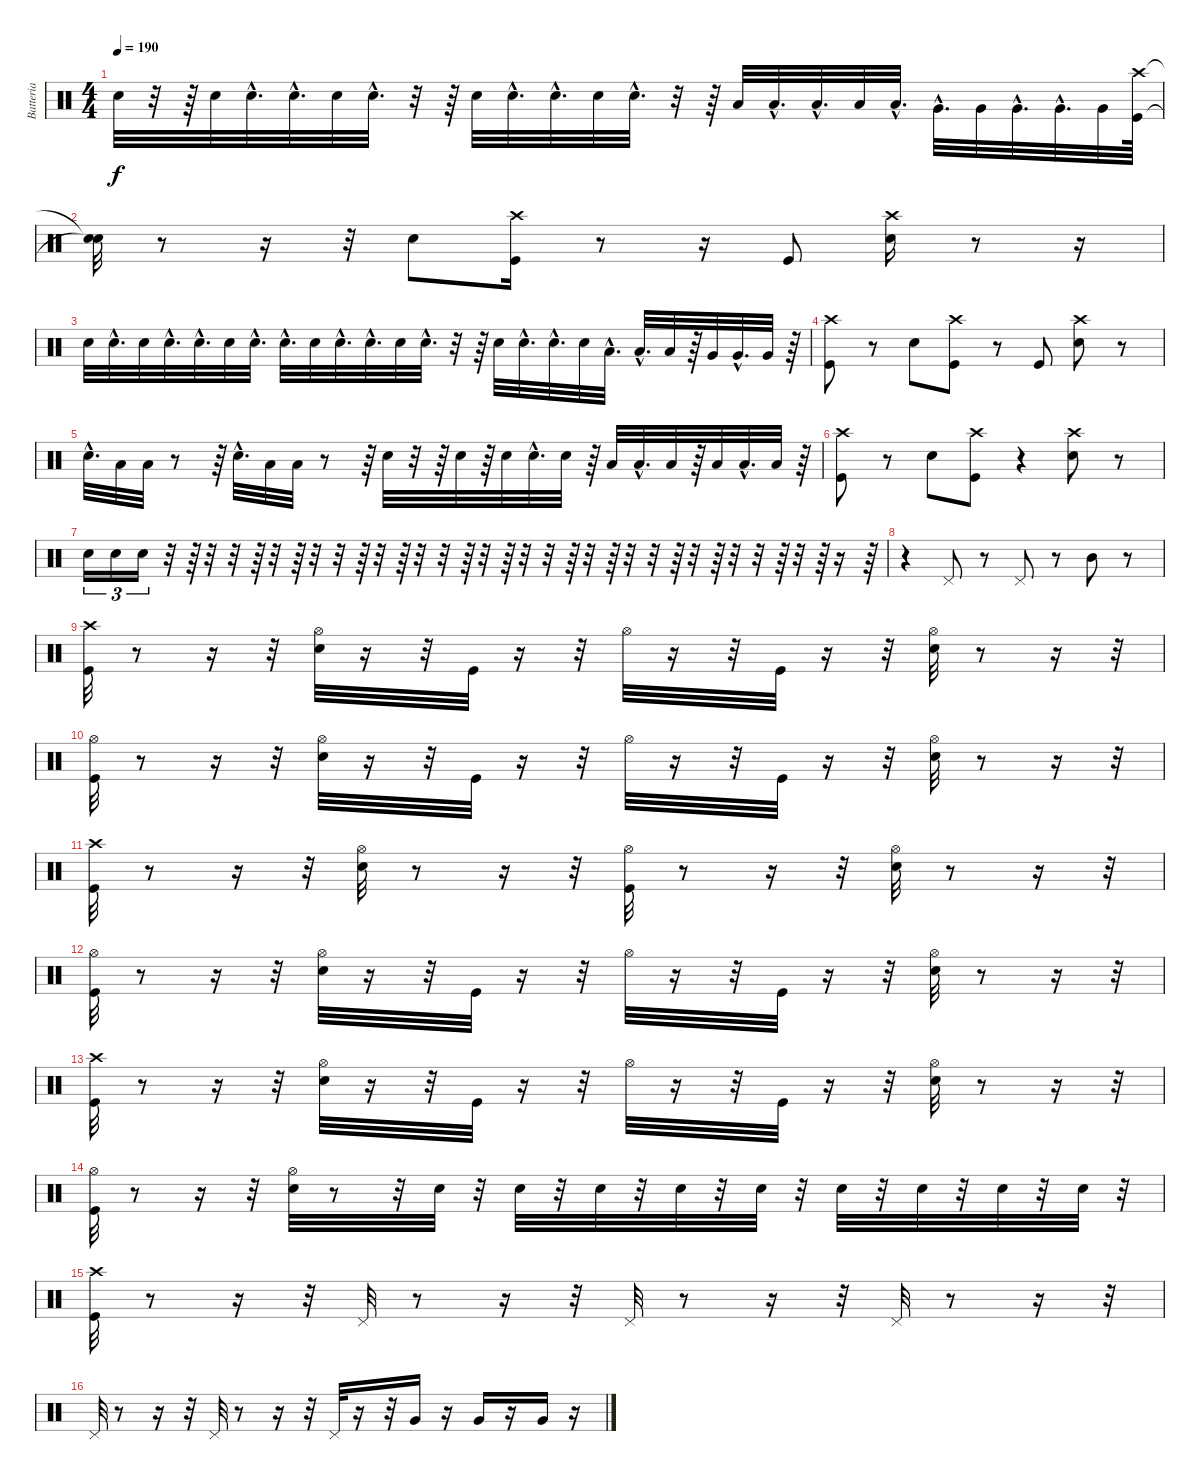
\track ("Batteria" "Batteria") {instrument percussion}
\staff {score}
\articulation defaults
\ts (4 4)
\tempo 190
\clef neutral
\ks c "Snare (hit) 2".32{dy f}
r.32 r.64 "Snare (hit) 2".32 "Snare (hit) 2"{hac}.32{d} "Snare (hit) 2"{hac}.32{d} "Snare (hit) 2".32 "Snare (hit) 2"{hac}.32{d} r.32 r.64 "Snare (hit) 2".32 "Snare (hit) 2"{hac}.32{d} "Snare (hit) 2"{hac}.32{d} "Snare (hit) 2".32 "Snare (hit) 2"{hac}.32{d} r.32 r.64 "Low Tom (hit)".32 "Low Tom (hit)"{hac}.32{d} "Low Tom (hit)"{hac}.32{d} "Low Tom (hit)".32 "Low Tom (hit)"{hac}.32{d} "Very Low Tom (hit)"{hac}.32{d} "Very Low Tom (hit)".32 "Very Low Tom (hit)"{hac}.32{d} "Very Low Tom (hit)"{hac}.32{d} "Very Low Tom (hit)".32 ("Crash high (hit)" "Kick (hit)").64 |
("Snare (hit)"{t} "Snare (hit)"{t}).32 r.8 r.16 r.32 "Snare (hit) 2".8 ("Crash high (hit)" "Kick (hit)").16 r.8 r.16 "Kick (hit)".8 ("Crash high (hit)" "Snare (hit) 2").16 r.8 r.16 |
"Snare (hit) 2".32 "Snare (hit) 2"{hac}.32{d} "Snare (hit) 2".32 "Snare (hit) 2"{hac}.32{d} "Snare (hit) 2"{hac}.32{d} "Snare (hit) 2".32 "Snare (hit) 2"{hac}.32{d} "Snare (hit) 2"{hac}.32{d} "Snare (hit) 2".32 "Snare (hit) 2"{hac}.32{d} "Snare (hit) 2"{hac}.32{d} "Snare (hit) 2".32 "Snare (hit) 2"{hac}.32{d} r.32 r.64 "Snare (hit) 2".32 "Snare (hit) 2"{hac}.32{d} "Snare (hit) 2"{hac}.32{d} "Snare (hit) 2".32 "Low Tom (hit)"{hac}.32{d} "Low Tom (hit)"{hac}.32{d} "Low Tom (hit)".32 r.64 "Very Low Tom (hit)".32 "Very Low Tom (hit)"{hac}.32{d} "Very Low Tom (hit)".32 r.64 |
("Crash high (hit)" "Kick (hit)").8 r.8 "Snare (hit) 2".8 ("Kick (hit)" "Crash high (hit)").8 r.8 "Kick (hit)".8 ("Snare (hit) 2" "Crash high (hit)").8 r.8 |
"Snare (hit) 2"{hac}.32{d} "Low Tom (hit)".32 "Low Tom (hit)".32 r.8 r.64 "Snare (hit) 2"{hac}.32{d} "Low Tom (hit)".32 "Low Tom (hit)".32 r.8 r.64 "Snare (hit) 2".32 r.32 r.64 "Snare (hit) 2".32 r.64 "Snare (hit) 2".32 "Snare (hit) 2"{hac}.32{d} "Snare (hit) 2".32 r.64 "Low Tom (hit)".32 "Low Tom (hit)"{hac}.32{d} "Low Tom (hit)".32 r.64 "Low Tom (hit)".32 "Low Tom (hit)"{hac}.32{d} "Low Tom (hit)".32 r.64 |
("Kick (hit)" "Crash high (hit)").8 r.8 "Snare (hit) 2".8 ("Kick (hit)" "Crash high (hit)").8 r.4 ("Snare (hit) 2" "Crash high (hit)").8 r.8 |
"Snare (hit) 2".16{tu (3 2)} "Snare (hit) 2".16{tu (3 2)} "Snare (hit) 2".16{tu (3 2)} r.32 r.64 r.32 r.32 r.64 r.32 r.64 r.32 r.32 r.64 r.32 r.64 r.32 r.32 r.64 r.32 r.64 r.32 r.32 r.64 r.32 r.64 r.32 r.32 r.64 r.32 r.64 r.32 r.32 r.64 r.32 r.64 r.16 r.64 |
r.4 "Pedal Hi-Hat (hit)".8 r.8 "Pedal Hi-Hat (hit)".8 r.8 "Mid Tom (hit)".8 r.8 |
("Crash high (hit)" "Kick (hit)").32 r.8 r.16 r.32 ("Hi-Hat (open)" "Snare (hit) 2").32 r.16 r.32 "Kick (hit)".32 r.16 r.32 "Hi-Hat (open)".32 r.16 r.32 "Kick (hit)".32 r.16 r.32 ("Snare (hit) 2" "Hi-Hat (open)").32 r.8 r.16 r.32 |
("Kick (hit)" "Hi-Hat (open)").32 r.8 r.16 r.32 ("Snare (hit) 2" "Hi-Hat (open)").32 r.16 r.32 "Kick (hit)".32 r.16 r.32 "Hi-Hat (open)".32 r.16 r.32 "Kick (hit)".32 r.16 r.32 ("Hi-Hat (open)" "Snare (hit) 2").32 r.8 r.16 r.32 |
("Crash high (hit)" "Kick (hit)").32 r.8 r.16 r.32 ("Hi-Hat (open)" "Snare (hit) 2").32 r.8 r.16 r.32 ("Hi-Hat (open)" "Kick (hit)").32 r.8 r.16 r.32 ("Hi-Hat (open)" "Snare (hit) 2").32 r.8 r.16 r.32 |
("Hi-Hat (open)" "Kick (hit)").32 r.8 r.16 r.32 ("Snare (hit) 2" "Hi-Hat (open)").32 r.16 r.32 "Kick (hit)".32 r.16 r.32 "Hi-Hat (open)".32 r.16 r.32 "Kick (hit)".32 r.16 r.32 ("Snare (hit) 2" "Hi-Hat (open)").32 r.8 r.16 r.32 |
("Crash high (hit)" "Kick (hit)").32 r.8 r.16 r.32 ("Hi-Hat (open)" "Snare (hit) 2").32 r.16 r.32 "Kick (hit)".32 r.16 r.32 "Hi-Hat (open)".32 r.16 r.32 "Kick (hit)".32 r.16 r.32 ("Hi-Hat (open)" "Snare (hit) 2").32 r.8 r.16 r.32 |
("Hi-Hat (open)" "Kick (hit)").32 r.8 r.16 r.32 ("Hi-Hat (open)" "Snare (hit) 2").32 r.8 r.32 "Snare (hit) 2".32 r.32 "Snare (hit) 2".32 r.32 "Snare (hit) 2".32 r.32 "Snare (hit) 2".32 r.32 "Snare (hit) 2".32 r.32 "Snare (hit) 2".32 r.32 "Snare (hit) 2".32 r.32 "Snare (hit) 2".32 r.32 "Snare (hit) 2".32 r.32 |
("Crash high (hit)" "Kick (hit)").32 r.8 r.16 r.32 "Pedal Hi-Hat (hit)".32 r.8 r.16 r.32 "Pedal Hi-Hat (hit)".32 r.8 r.16 r.32 "Pedal Hi-Hat (hit)".32 r.8 r.16 r.32 |
"Pedal Hi-Hat (hit)".32 r.8 r.16 r.32 "Pedal Hi-Hat (hit)".32 r.8 r.16 r.32 "Pedal Hi-Hat (hit)".32 r.16 r.32 "Very Low Tom (hit)".16 r.16 "Very Low Tom (hit)".16 r.16 "Very Low Tom (hit)".16 r.16
